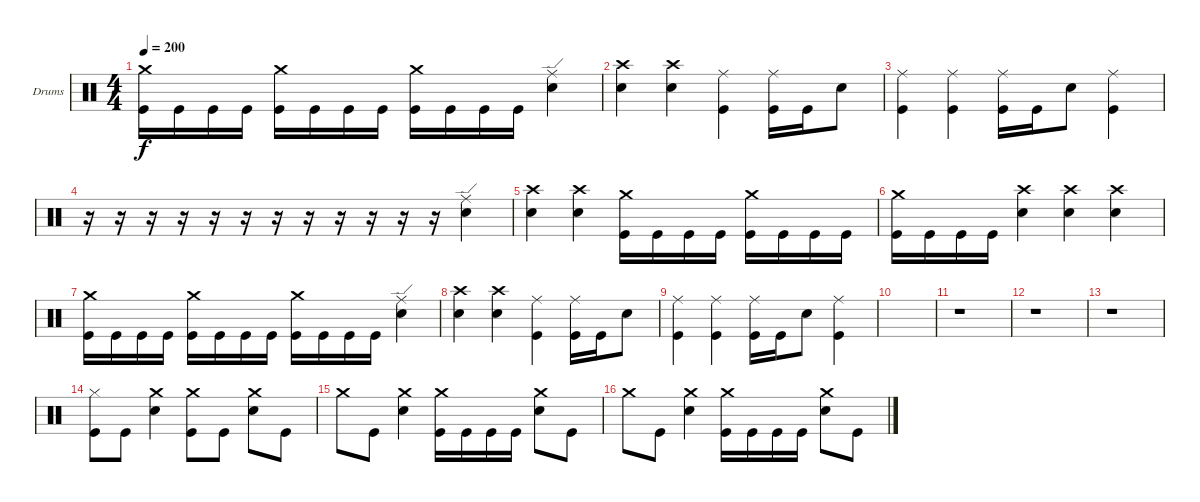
\bracketExtendMode groupsimilarinstruments
\firstSystemTrackNameOrientation horizontal
\otherSystemsTrackNameOrientation horizontal
\track ("Emile Bardou" "Drums") {instrument percussion}
\staff {score}
\articulation defaults
\ts (4 4)
\tempo 200
\clef neutral
\ks c
("Crash medium (hit)" "Kick (hit)").16{dy f} "Kick (hit)".16 "Kick (hit)".16 "Kick (hit)".16 ("Crash medium (hit)" "Kick (hit)").16 "Kick (hit)".16 "Kick (hit)".16 "Kick (hit)".16 ("Crash medium (hit)" "Kick (hit)").16 "Kick (hit)".16 "Kick (hit)".16 "Kick (hit)".16 ("Ride (edge)" "Snare (hit) 2").4 |
("Snare (hit) 2" "Crash high (hit)").4 ("Snare (hit) 2" "Crash high (hit)").4 ("Kick (hit)" "Ride (middle)").4 ("Kick (hit)" "Ride (middle)").16 "Kick (hit)".16 "Snare (hit) 2".8 |
("Kick (hit)" "Ride (middle)").4 ("Ride (middle)" "Kick (hit)").4 ("Kick (hit)" "Ride (middle)").16 "Kick (hit)".16 "Snare (hit) 2".8 ("Kick (hit)" "Ride (middle)").4 |
r.16 r.16 r.16 r.16 r.16 r.16 r.16 r.16 r.16 r.16 r.16 r.16 ("Ride (edge)" "Snare (hit) 2").4 |
("Crash high (hit)" "Snare (hit) 2").4 ("Crash high (hit)" "Snare (hit) 2").4 ("Crash medium (hit)" "Kick (hit)").16 "Kick (hit)".16 "Kick (hit)".16 "Kick (hit)".16 ("Crash medium (hit)" "Kick (hit)").16 "Kick (hit)".16 "Kick (hit)".16 "Kick (hit)".16 |
("Crash medium (hit)" "Kick (hit)").16 "Kick (hit)".16 "Kick (hit)".16 "Kick (hit)".16 ("Snare (hit) 2" "Crash high (hit)").4 ("Crash high (hit)" "Snare (hit) 2").4 ("Snare (hit) 2" "Crash high (hit)").4 |
("Crash medium (hit)" "Kick (hit)").16 "Kick (hit)".16 "Kick (hit)".16 "Kick (hit)".16 ("Crash medium (hit)" "Kick (hit)").16 "Kick (hit)".16 "Kick (hit)".16 "Kick (hit)".16 ("Crash medium (hit)" "Kick (hit)").16 "Kick (hit)".16 "Kick (hit)".16 "Kick (hit)".16 ("Ride (edge)" "Snare (hit) 2").4 |
("Snare (hit) 2" "Crash high (hit)").4 ("Snare (hit) 2" "Crash high (hit)").4 ("Kick (hit)" "Ride (middle)").4 ("Kick (hit)" "Ride (middle)").16 "Kick (hit)".16 "Snare (hit) 2".8 |
("Kick (hit)" "Ride (middle)").4 ("Ride (middle)" "Kick (hit)").4 ("Kick (hit)" "Ride (middle)").16 "Kick (hit)".16 "Snare (hit) 2".8 ("Kick (hit)" "Ride (middle)").4 |
|
r.1 |
r.1 |
r.1 |
("Kick (hit)" "Hi-Hat (closed)").8 "Kick (hit)".8 ("Crash medium (hit)" "Snare (hit) 2").4 ("Crash medium (hit)" "Kick (hit)").8 "Kick (hit)".8 ("Crash medium (hit)" "Snare (hit) 2").8 "Kick (hit)".8 |
"Crash medium (hit)".8 "Kick (hit)".8 ("Crash medium (hit)" "Snare (hit) 2").4 ("Crash medium (hit)" "Kick (hit)").16 "Kick (hit)".16 "Kick (hit)".16 "Kick (hit)".16 ("Crash medium (hit)" "Snare (hit) 2").8 "Kick (hit)".8 |
"Crash medium (hit)".8 "Kick (hit)".8 ("Crash medium (hit)" "Snare (hit) 2").4 ("Crash medium (hit)" "Kick (hit)").16 "Kick (hit)".16 "Kick (hit)".16 "Kick (hit)".16 ("Crash medium (hit)" "Snare (hit) 2").8 "Kick (hit)".8
